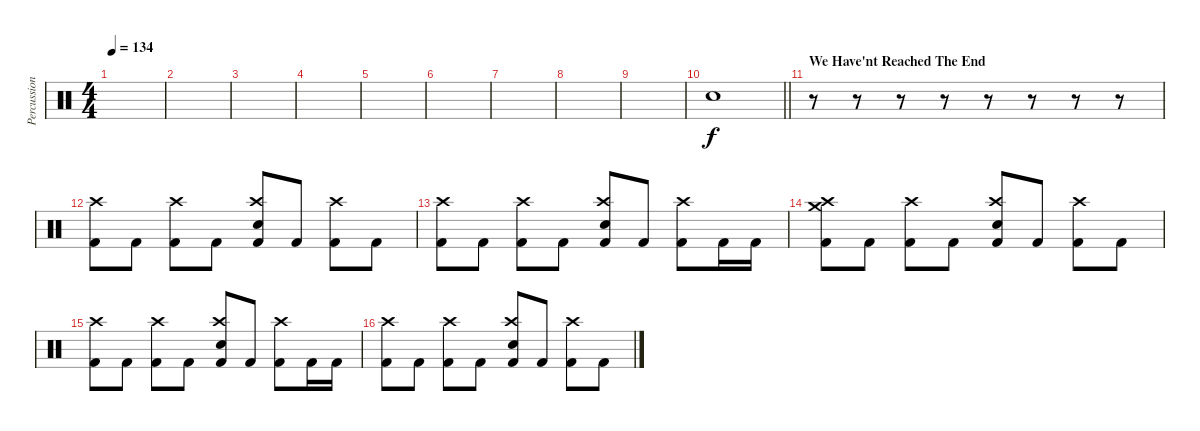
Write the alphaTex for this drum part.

\track ("Percussion" "Percussion") {instrument percussion}
\staff {score}
\articulation defaults
\ts (4 4)
\tempo 134
\clef neutral
\ks c
|
|
|
|
|
|
|
|
|
\barLineRight lightlight "Snare (hit) 2".1
|
\section ("" "We Have'nt Reached The End")
r.8 r.8 r.8 r.8 r.8 r.8 r.8 r.8 |
("Crash high (hit)" "Kick (hit) 2").8 "Kick (hit) 2".8 ("Crash high (hit)" "Kick (hit) 2").8 "Kick (hit) 2".8 ("Crash high (hit)" "Snare (hit) 2" "Kick (hit) 2").8 "Kick (hit) 2".8 ("Crash high (hit)" "Kick (hit) 2").8 "Kick (hit) 2".8 |
("Crash high (hit)" "Kick (hit) 2").8 "Kick (hit) 2".8 ("Crash high (hit)" "Kick (hit) 2").8 "Kick (hit) 2".8 ("Crash high (hit)" "Snare (hit) 2" "Kick (hit) 2").8 "Kick (hit) 2".8 ("Crash high (hit)" "Kick (hit) 2").8 "Kick (hit) 2".16 "Kick (hit) 2".16 |
("Crash medium (hit)" "Crash high (hit)" "Kick (hit) 2").8 "Kick (hit) 2".8 ("Crash high (hit)" "Kick (hit) 2").8 "Kick (hit) 2".8 ("Crash high (hit)" "Snare (hit) 2" "Kick (hit) 2").8 "Kick (hit) 2".8 ("Crash high (hit)" "Kick (hit) 2").8 "Kick (hit) 2".8 |
("Crash high (hit)" "Kick (hit) 2").8 "Kick (hit) 2".8 ("Crash high (hit)" "Kick (hit) 2").8 "Kick (hit) 2".8 ("Crash high (hit)" "Snare (hit) 2" "Kick (hit) 2").8 "Kick (hit) 2".8 ("Crash high (hit)" "Kick (hit) 2").8 "Kick (hit) 2".16 "Kick (hit) 2".16 |
("Crash high (hit)" "Kick (hit) 2").8 "Kick (hit) 2".8 ("Crash high (hit)" "Kick (hit) 2").8 "Kick (hit) 2".8 ("Crash high (hit)" "Snare (hit) 2" "Kick (hit) 2").8 "Kick (hit) 2".8 ("Crash high (hit)" "Kick (hit) 2").8 "Kick (hit) 2".8
